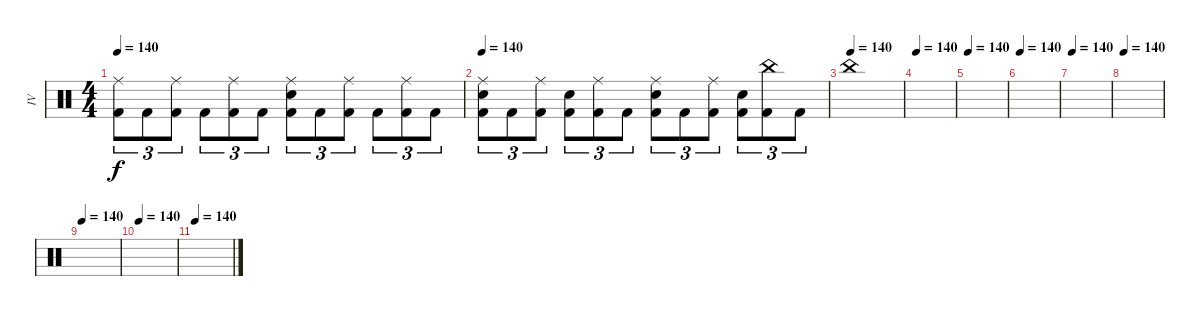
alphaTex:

\track ("IV" "IV") {instrument percussion}
\staff {score}
\articulation defaults
\ts (4 4)
\tempo 140
\clef neutral
\ks c
("Ride (middle)" "Kick (hit) 2").8{tu (3 2) dy f} "Kick (hit) 2".8{tu (3 2)} ("Ride (middle)" "Kick (hit) 2").8{tu (3 2)} "Kick (hit) 2".8{tu (3 2)} ("Ride (middle)" "Kick (hit) 2").8{tu (3 2)} "Kick (hit) 2".8{tu (3 2)} ("Ride (middle)" "Snare (hit) 2" "Kick (hit) 2").8{tu (3 2)} "Kick (hit) 2".8{tu (3 2)} ("Ride (middle)" "Kick (hit) 2").8{tu (3 2)} "Kick (hit) 2".8{tu (3 2)} ("Ride (middle)" "Kick (hit) 2").8{tu (3 2)} "Kick (hit) 2".8{tu (3 2)} |
\tempo 140
("Ride (middle)" "Snare (hit) 2" "Kick (hit) 2").8{tu (3 2)} "Kick (hit) 2".8{tu (3 2)} ("Ride (middle)" "Kick (hit) 2").8{tu (3 2)} ("Snare (hit) 2" "Kick (hit) 2").8{tu (3 2)} ("Ride (middle)" "Kick (hit) 2").8{tu (3 2)} "Kick (hit) 2".8{tu (3 2)} ("Ride (middle)" "Snare (hit) 2" "Kick (hit) 2").8{tu (3 2)} "Kick (hit) 2".8{tu (3 2)} ("Ride (middle)" "Kick (hit) 2").8{tu (3 2)} ("Snare (hit) 2" "Kick (hit) 2").8{tu (3 2)} ("China (hit)" "Kick (hit) 2").8{tu (3 2)} "Kick (hit) 2".8{tu (3 2)} |
\tempo (140)
"China (hit)".1 |
\tempo 120
\tempo 140
|
\tempo 120
\tempo 140
|
\tempo 120
\tempo 140
|
\tempo 120
\tempo 140
|
\tempo 120
\tempo 140
|
\tempo 120
\tempo 140
|
\tempo 120
\tempo 140
|
\tempo 120
\tempo 140
